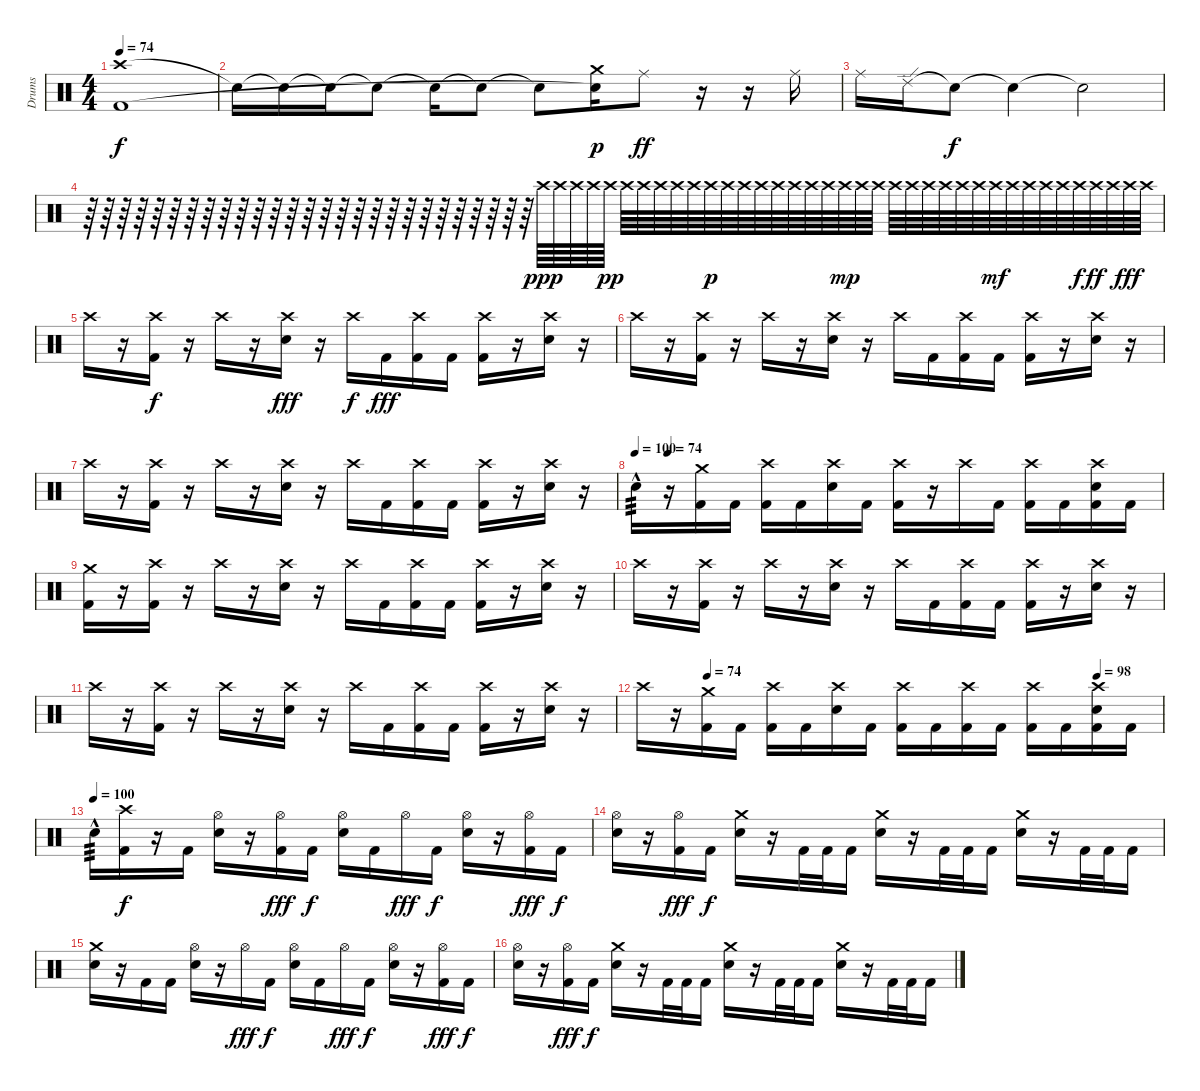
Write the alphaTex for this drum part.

\track ("Drums" "Drums") {instrument percussion}
\staff {score}
\articulation defaults
\ts (4 4)
\tempo 74
\clef neutral
\ks c
("Crash high (hit)"{t} "Kick (hit) 2"{t}).1{dy f} |
"Snare (hit)"{t}.16 "Snare (hit)"{t}.16 "Snare (hit)"{t}.16 "Snare (hit)"{t}.8 "Snare (hit)"{t}.16 "Snare (hit)"{t}.8 "Snare (hit)"{t}.8 ("Crash medium (hit)" "Snare (hit)"{t}).16{dy p} "Ride (middle)".8{dy ff} r.16 r.16 "Ride (middle)".16 |
"Ride (middle)".16 "Ride (edge) 2".16 "Snare (hit)"{t}.8{dy f} "Snare (hit)"{t}.4 "Snare (hit)"{t}.2 |
r.64 r.64 r.64 r.64 r.64 r.64 r.64 r.64 r.64 r.64 r.64 r.64 r.64 r.64 r.64 r.64 r.64 r.64 r.64 r.64 r.64 r.64 r.64 r.64 r.64 r.64 r.64 "Crash high (hit)".64{dy ppp} "Crash high (hit)".64 "Crash high (hit)".64 "Crash high (hit)".64 "Crash high (hit)".64{dy pp} "Crash high (hit)".64 "Crash high (hit)".64 "Crash high (hit)".64 "Crash high (hit)".64 "Crash high (hit)".64 "Crash high (hit)".64{dy p} "Crash high (hit)".64 "Crash high (hit)".64 "Crash high (hit)".64 "Crash high (hit)".64 "Crash high (hit)".64 "Crash high (hit)".64 "Crash high (hit)".64 "Crash high (hit)".64{dy mp} "Crash high (hit)".64 "Crash high (hit)".64 "Crash high (hit)".64 "Crash high (hit)".64 "Crash high (hit)".64 "Crash high (hit)".64 "Crash high (hit)".64 "Crash high (hit)".64 "Crash high (hit)".64{dy mf} "Crash high (hit)".64 "Crash high (hit)".64 "Crash high (hit)".64 "Crash high (hit)".64 "Crash high (hit)".64{dy f} "Crash high (hit)".64{dy ff} "Crash high (hit)".64 "Crash high (hit)".64{dy fff} "Crash high (hit)".64 |
"Crash high (hit)".16 r.16 ("Crash high (hit)" "Kick (hit) 2").16{dy f} r.16 "Crash high (hit)".16 r.16 ("Crash high (hit)" "Electric Snare (hit)").16{dy fff} r.16 "Crash high (hit)".16{dy f} "Kick (hit) 2".16{dy fff} ("Crash high (hit)" "Kick (hit) 2").16 "Kick (hit) 2".16 ("Crash high (hit)" "Kick (hit) 2").16 r.16 ("Crash high (hit)" "Electric Snare (hit)").16 r.16 |
"Crash high (hit)".16 r.16 ("Crash high (hit)" "Kick (hit) 2").16 r.16 "Crash high (hit)".16 r.16 ("Crash high (hit)" "Electric Snare (hit)").16 r.16 "Crash high (hit)".16 "Kick (hit) 2".16 ("Crash high (hit)" "Kick (hit) 2").16 "Kick (hit) 2".16 ("Crash high (hit)" "Kick (hit) 2").16 r.16 ("Crash high (hit)" "Electric Snare (hit)").16 r.16 |
"Crash high (hit)".16 r.16 ("Crash high (hit)" "Kick (hit) 2").16 r.16 "Crash high (hit)".16 r.16 ("Crash high (hit)" "Electric Snare (hit)").16 r.16 "Crash high (hit)".16 "Kick (hit) 2".16 ("Crash high (hit)" "Kick (hit) 2").16 "Kick (hit) 2".16 ("Crash high (hit)" "Kick (hit) 2").16 r.16 ("Crash high (hit)" "Electric Snare (hit)").16 r.16 |
\tempo 100
\tempo (74 0.0625)
"Electric Snare (hit)"{hac}.16{tp 3} r.16 ("Crash medium (hit)" "Kick (hit) 2").16 "Kick (hit) 2".16 ("Crash high (hit)" "Kick (hit) 2").16 "Kick (hit) 2".16 ("Crash high (hit)" "Electric Snare (hit)").16 "Kick (hit) 2".16 ("Crash high (hit)" "Kick (hit) 2").16 r.16 "Crash high (hit)".16 "Kick (hit) 2".16 ("Crash high (hit)" "Kick (hit) 2").16 "Kick (hit) 2".16 ("Crash high (hit)" "Electric Snare (hit)" "Kick (hit) 2").16 "Kick (hit) 2".16 |
("Crash medium (hit)" "Kick (hit) 2").16 r.16 ("Crash high (hit)" "Kick (hit) 2").16 r.16 "Crash high (hit)".16 r.16 ("Crash high (hit)" "Electric Snare (hit)").16 r.16 "Crash high (hit)".16 "Kick (hit) 2".16 ("Crash high (hit)" "Kick (hit) 2").16 "Kick (hit) 2".16 ("Crash high (hit)" "Kick (hit) 2").16 r.16 ("Crash high (hit)" "Electric Snare (hit)").16 r.16 |
"Crash high (hit)".16 r.16 ("Crash high (hit)" "Kick (hit) 2").16 r.16 "Crash high (hit)".16 r.16 ("Crash high (hit)" "Electric Snare (hit)").16 r.16 "Crash high (hit)".16 "Kick (hit) 2".16 ("Crash high (hit)" "Kick (hit) 2").16 "Kick (hit) 2".16 ("Crash high (hit)" "Kick (hit) 2").16 r.16 ("Crash high (hit)" "Electric Snare (hit)").16 r.16 |
"Crash high (hit)".16 r.16 ("Crash high (hit)" "Kick (hit) 2").16 r.16 "Crash high (hit)".16 r.16 ("Crash high (hit)" "Electric Snare (hit)").16 r.16 "Crash high (hit)".16 "Kick (hit) 2".16 ("Crash high (hit)" "Kick (hit) 2").16 "Kick (hit) 2".16 ("Crash high (hit)" "Kick (hit) 2").16 r.16 ("Crash high (hit)" "Electric Snare (hit)").16 r.16 |
\tempo (98 0.875)
\tempo (74 0.125)
"Crash high (hit)".16 r.16 ("Crash medium (hit)" "Kick (hit) 2").16 "Kick (hit) 2".16 ("Crash high (hit)" "Kick (hit) 2").16 "Kick (hit) 2".16 ("Crash high (hit)" "Electric Snare (hit)").16 "Kick (hit) 2".16 ("Crash high (hit)" "Kick (hit) 2").16 "Kick (hit) 2".16 ("Crash high (hit)" "Kick (hit) 2").16 "Kick (hit) 2".16 ("Crash high (hit)" "Kick (hit) 2").16 "Kick (hit) 2".16 ("Crash high (hit)" "Electric Snare (hit)" "Kick (hit) 2").16 "Kick (hit) 2".16 |
\tempo (100)
"Electric Snare (hit)"{hac}.16{tp 3} ("Crash high (hit)" "Kick (hit) 2").16{dy f} r.16 "Kick (hit) 2".16 ("Hi-Hat (open)" "Electric Snare (hit)").16 r.16 ("Hi-Hat (open)" "Kick (hit) 2").16{dy fff} "Kick (hit) 2".16{dy f} ("Hi-Hat (open)" "Electric Snare (hit)").16 "Kick (hit) 2".16 "Hi-Hat (open)".16{dy fff} "Kick (hit) 2".16{dy f} ("Hi-Hat (open)" "Electric Snare (hit)").16 r.16 ("Hi-Hat (open)" "Kick (hit) 2").16{dy fff} "Kick (hit) 2".16{dy f} |
("Hi-Hat (open)" "Electric Snare (hit)").16 r.16 ("Hi-Hat (open)" "Kick (hit) 2").16{dy fff} "Kick (hit) 2".16{dy f} ("Crash medium (hit)" "Electric Snare (hit)").16 r.16 "Kick (hit) 2".32 "Kick (hit) 2".32 "Kick (hit) 2".16 ("Crash medium (hit)" "Electric Snare (hit)").16 r.16 "Kick (hit) 2".32 "Kick (hit) 2".32 "Kick (hit) 2".16 ("Crash medium (hit)" "Electric Snare (hit)").16 r.16 "Kick (hit) 2".32 "Kick (hit) 2".32 "Kick (hit) 2".16 |
("Crash medium (hit)" "Electric Snare (hit)").16 r.16 "Kick (hit) 2".16 "Kick (hit) 2".16 ("Hi-Hat (open)" "Electric Snare (hit)").16 r.16 "Hi-Hat (open)".16{dy fff} "Kick (hit) 2".16{dy f} ("Hi-Hat (open)" "Electric Snare (hit)").16 "Kick (hit) 2".16 "Hi-Hat (open)".16{dy fff} "Kick (hit) 2".16{dy f} ("Hi-Hat (open)" "Electric Snare (hit)").16 r.16 ("Hi-Hat (open)" "Kick (hit) 2").16{dy fff} "Kick (hit) 2".16{dy f} |
("Hi-Hat (open)" "Electric Snare (hit)").16 r.16 ("Hi-Hat (open)" "Kick (hit) 2").16{dy fff} "Kick (hit) 2".16{dy f} ("Crash medium (hit)" "Electric Snare (hit)").16 r.16 "Kick (hit) 2".32 "Kick (hit) 2".32 "Kick (hit) 2".16 ("Crash medium (hit)" "Electric Snare (hit)").16 r.16 "Kick (hit) 2".32 "Kick (hit) 2".32 "Kick (hit) 2".16 ("Crash medium (hit)" "Electric Snare (hit)").16 r.16 "Kick (hit) 2".32 "Kick (hit) 2".32 "Kick (hit) 2".16
